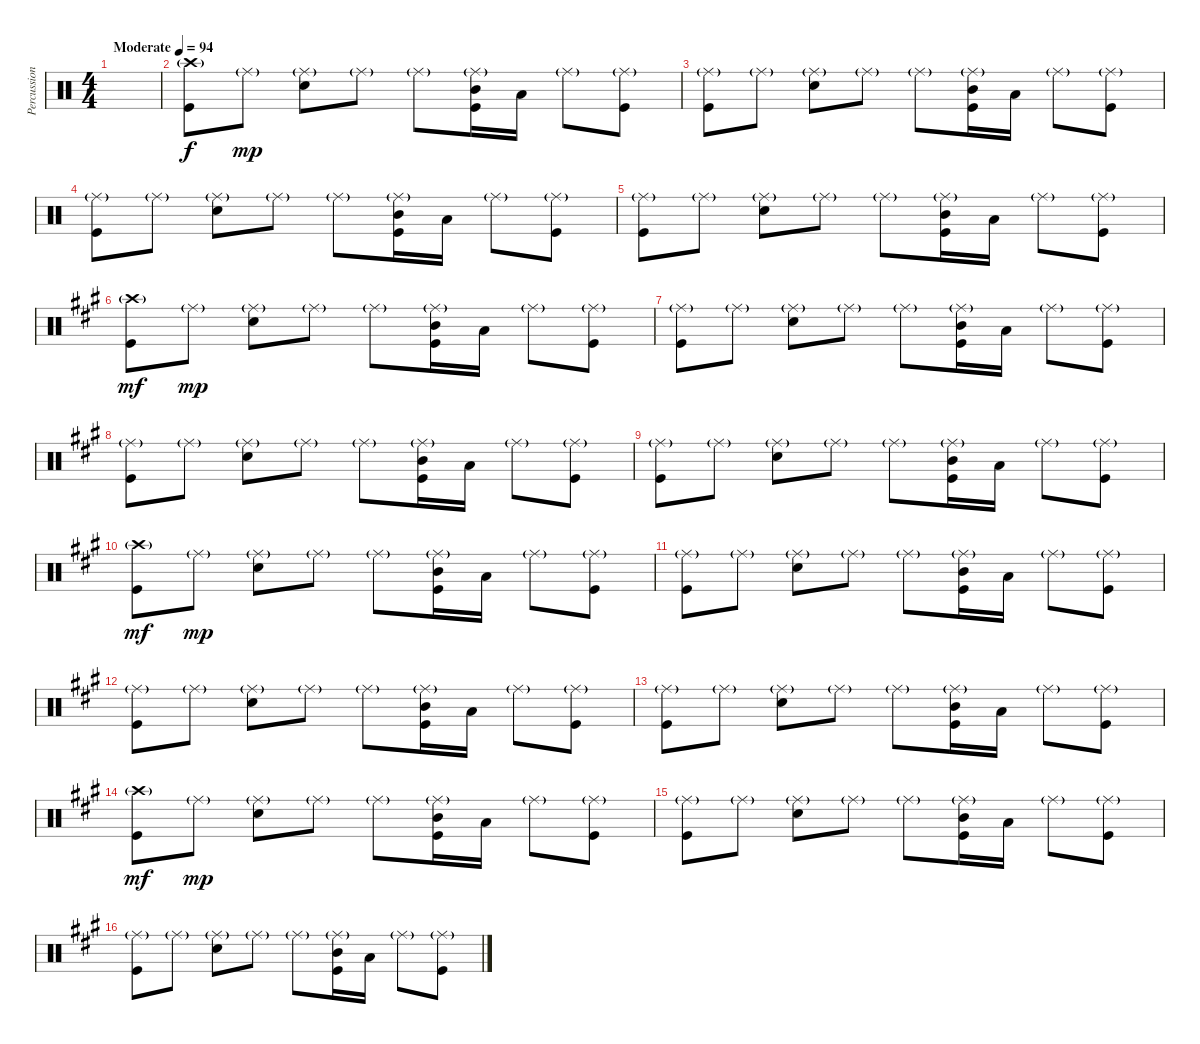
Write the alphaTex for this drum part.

\track ("Percussion" "Percussion") {instrument percussion}
\staff {score}
\articulation defaults
\ts (4 4)
\tempo (94 "Moderate")
\clef neutral
\ks c
|
("Crash high (hit)"{g} "Kick (hit)").8 "Ride (middle)"{g}.8{dy mp} ("Ride (middle)"{g} "Electric Snare (hit)").8 "Ride (middle)"{g}.8 "Ride (middle)"{g}.8 ("Ride (middle)"{g} "Mid Tom (hit)" "Kick (hit)").16 "Low Tom (hit)".16 "Ride (middle)"{g}.8 ("Ride (middle)"{g} "Kick (hit)").8 |
("Ride (middle)"{g} "Kick (hit)").8 "Ride (middle)"{g}.8 ("Ride (middle)"{g} "Electric Snare (hit)").8 "Ride (middle)"{g}.8 "Ride (middle)"{g}.8 ("Ride (middle)"{g} "Mid Tom (hit)" "Kick (hit)").16 "Low Tom (hit)".16 "Ride (middle)"{g}.8 ("Ride (middle)"{g} "Kick (hit)").8 |
("Ride (middle)"{g} "Kick (hit)").8 "Ride (middle)"{g}.8 ("Ride (middle)"{g} "Electric Snare (hit)").8 "Ride (middle)"{g}.8 "Ride (middle)"{g}.8 ("Ride (middle)"{g} "Mid Tom (hit)" "Kick (hit)").16 "Low Tom (hit)".16 "Ride (middle)"{g}.8 ("Ride (middle)"{g} "Kick (hit)").8 |
("Ride (middle)"{g} "Kick (hit)").8 "Ride (middle)"{g}.8 ("Ride (middle)"{g} "Electric Snare (hit)").8 "Ride (middle)"{g}.8 "Ride (middle)"{g}.8 ("Ride (middle)"{g} "Mid Tom (hit)" "Kick (hit)").16 "Low Tom (hit)".16 "Ride (middle)"{g}.8 ("Ride (middle)"{g} "Kick (hit)").8 |
\ks a
("Crash high (hit)"{g} "Kick (hit)").8{dy mf} "Ride (middle)"{g}.8{dy mp} ("Ride (middle)"{g} "Electric Snare (hit)").8 "Ride (middle)"{g}.8 "Ride (middle)"{g}.8 ("Ride (middle)"{g} "Mid Tom (hit)" "Kick (hit)").16 "Low Tom (hit)".16 "Ride (middle)"{g}.8 ("Ride (middle)"{g} "Kick (hit)").8 |
("Ride (middle)"{g} "Kick (hit)").8 "Ride (middle)"{g}.8 ("Ride (middle)"{g} "Electric Snare (hit)").8 "Ride (middle)"{g}.8 "Ride (middle)"{g}.8 ("Ride (middle)"{g} "Mid Tom (hit)" "Kick (hit)").16 "Low Tom (hit)".16 "Ride (middle)"{g}.8 ("Ride (middle)"{g} "Kick (hit)").8 |
("Ride (middle)"{g} "Kick (hit)").8 "Ride (middle)"{g}.8 ("Ride (middle)"{g} "Electric Snare (hit)").8 "Ride (middle)"{g}.8 "Ride (middle)"{g}.8 ("Ride (middle)"{g} "Mid Tom (hit)" "Kick (hit)").16 "Low Tom (hit)".16 "Ride (middle)"{g}.8 ("Ride (middle)"{g} "Kick (hit)").8 |
("Ride (middle)"{g} "Kick (hit)").8 "Ride (middle)"{g}.8 ("Ride (middle)"{g} "Electric Snare (hit)").8 "Ride (middle)"{g}.8 "Ride (middle)"{g}.8 ("Ride (middle)"{g} "Mid Tom (hit)" "Kick (hit)").16 "Low Tom (hit)".16 "Ride (middle)"{g}.8 ("Ride (middle)"{g} "Kick (hit)").8 |
("Crash high (hit)"{g} "Kick (hit)").8{dy mf} "Ride (middle)"{g}.8{dy mp} ("Ride (middle)"{g} "Electric Snare (hit)").8 "Ride (middle)"{g}.8 "Ride (middle)"{g}.8 ("Ride (middle)"{g} "Mid Tom (hit)" "Kick (hit)").16 "Low Tom (hit)".16 "Ride (middle)"{g}.8 ("Ride (middle)"{g} "Kick (hit)").8 |
("Ride (middle)"{g} "Kick (hit)").8 "Ride (middle)"{g}.8 ("Ride (middle)"{g} "Electric Snare (hit)").8 "Ride (middle)"{g}.8 "Ride (middle)"{g}.8 ("Ride (middle)"{g} "Mid Tom (hit)" "Kick (hit)").16 "Low Tom (hit)".16 "Ride (middle)"{g}.8 ("Ride (middle)"{g} "Kick (hit)").8 |
("Ride (middle)"{g} "Kick (hit)").8 "Ride (middle)"{g}.8 ("Ride (middle)"{g} "Electric Snare (hit)").8 "Ride (middle)"{g}.8 "Ride (middle)"{g}.8 ("Ride (middle)"{g} "Mid Tom (hit)" "Kick (hit)").16 "Low Tom (hit)".16 "Ride (middle)"{g}.8 ("Ride (middle)"{g} "Kick (hit)").8 |
("Ride (middle)"{g} "Kick (hit)").8 "Ride (middle)"{g}.8 ("Ride (middle)"{g} "Electric Snare (hit)").8 "Ride (middle)"{g}.8 "Ride (middle)"{g}.8 ("Ride (middle)"{g} "Mid Tom (hit)" "Kick (hit)").16 "Low Tom (hit)".16 "Ride (middle)"{g}.8 ("Ride (middle)"{g} "Kick (hit)").8 |
("Crash high (hit)"{g} "Kick (hit)").8{dy mf} "Ride (middle)"{g}.8{dy mp} ("Ride (middle)"{g} "Electric Snare (hit)").8 "Ride (middle)"{g}.8 "Ride (middle)"{g}.8 ("Ride (middle)"{g} "Mid Tom (hit)" "Kick (hit)").16 "Low Tom (hit)".16 "Ride (middle)"{g}.8 ("Ride (middle)"{g} "Kick (hit)").8 |
("Ride (middle)"{g} "Kick (hit)").8 "Ride (middle)"{g}.8 ("Ride (middle)"{g} "Electric Snare (hit)").8 "Ride (middle)"{g}.8 "Ride (middle)"{g}.8 ("Ride (middle)"{g} "Mid Tom (hit)" "Kick (hit)").16 "Low Tom (hit)".16 "Ride (middle)"{g}.8 ("Ride (middle)"{g} "Kick (hit)").8 |
("Ride (middle)"{g} "Kick (hit)").8 "Ride (middle)"{g}.8 ("Ride (middle)"{g} "Electric Snare (hit)").8 "Ride (middle)"{g}.8 "Ride (middle)"{g}.8 ("Ride (middle)"{g} "Mid Tom (hit)" "Kick (hit)").16 "Low Tom (hit)".16 "Ride (middle)"{g}.8 ("Ride (middle)"{g} "Kick (hit)").8
